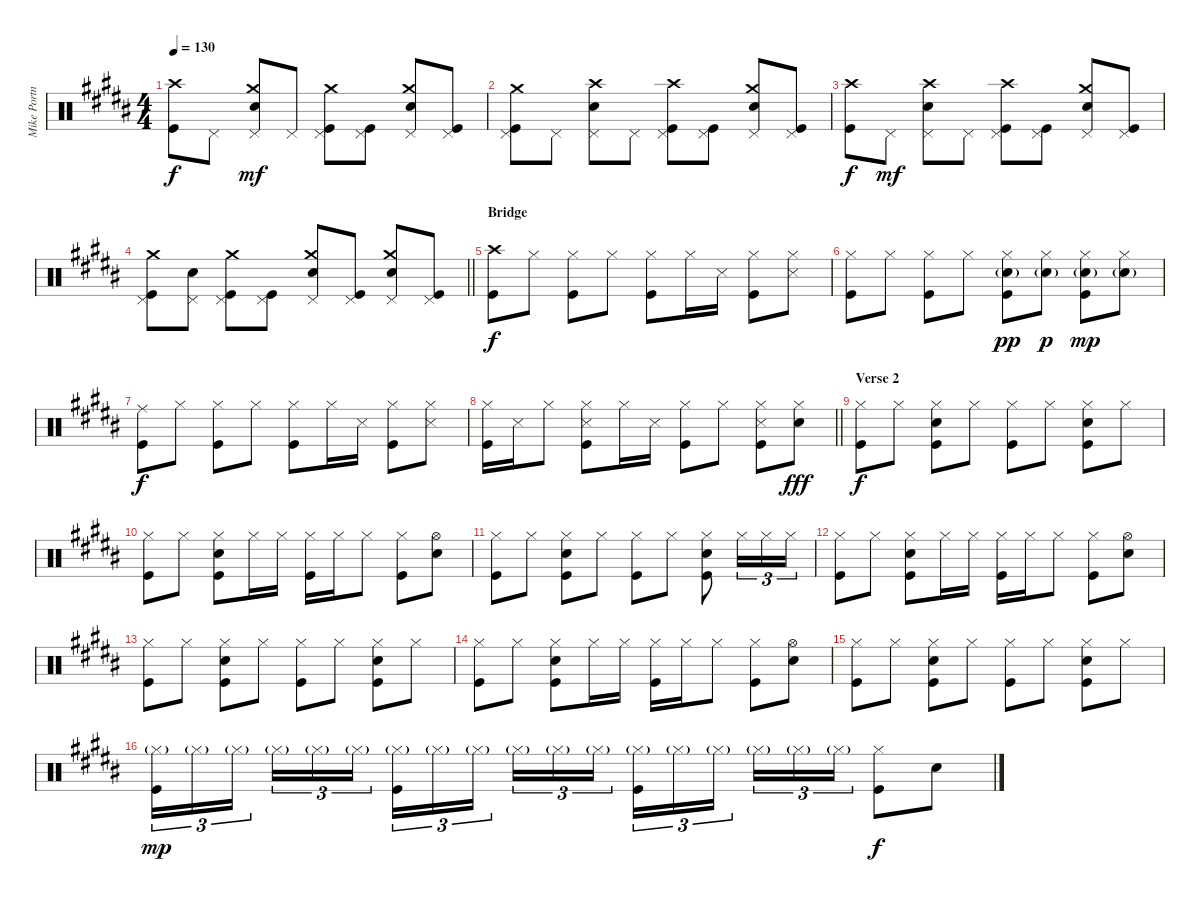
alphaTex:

\track ("Mike Portnoy" "Mike Portn") {instrument percussion}
\staff {score}
\articulation defaults
\ts (4 4)
\tempo 130
\clef neutral
\ks g#minor
("Crash high (hit)" "Kick (hit)").8{dy f} "Pedal Hi-Hat (hit)".8 ("Crash medium (hit)" "Pedal Hi-Hat (hit)" "Electric Snare (hit)").8{dy mf} "Pedal Hi-Hat (hit)".8 ("Crash medium (hit)" "Pedal Hi-Hat (hit)" "Kick (hit)").8 ("Pedal Hi-Hat (hit)" "Kick (hit)").8 ("Crash medium (hit)" "Pedal Hi-Hat (hit)" "Electric Snare (hit)").8 ("Pedal Hi-Hat (hit)" "Kick (hit)").8 |
("Crash medium (hit)" "Pedal Hi-Hat (hit)" "Kick (hit)").8 "Pedal Hi-Hat (hit)".8 ("Crash high (hit)" "Pedal Hi-Hat (hit)" "Electric Snare (hit)").8 "Pedal Hi-Hat (hit)".8 ("Crash high (hit)" "Pedal Hi-Hat (hit)" "Kick (hit)").8 ("Pedal Hi-Hat (hit)" "Kick (hit)").8 ("Crash medium (hit)" "Pedal Hi-Hat (hit)" "Electric Snare (hit)").8 ("Pedal Hi-Hat (hit)" "Kick (hit)").8 |
("Crash high (hit)" "Kick (hit)").8{dy f} "Pedal Hi-Hat (hit)".8{dy mf} ("Crash high (hit)" "Pedal Hi-Hat (hit)" "Electric Snare (hit)").8 "Pedal Hi-Hat (hit)".8 ("Crash high (hit)" "Pedal Hi-Hat (hit)" "Kick (hit)").8 ("Pedal Hi-Hat (hit)" "Kick (hit)").8 ("Crash medium (hit)" "Pedal Hi-Hat (hit)" "Electric Snare (hit)").8 ("Pedal Hi-Hat (hit)" "Kick (hit)").8 |
\barLineRight lightlight
("Crash medium (hit)" "Pedal Hi-Hat (hit)" "Kick (hit)").8 ("Pedal Hi-Hat (hit)" "Electric Snare (hit)").8 ("Crash medium (hit)" "Pedal Hi-Hat (hit)" "Kick (hit)").8 ("Pedal Hi-Hat (hit)" "Kick (hit)").8 ("Crash medium (hit)" "Pedal Hi-Hat (hit)" "Electric Snare (hit)").8 ("Pedal Hi-Hat (hit)" "Kick (hit)").8 ("Crash medium (hit)" "Pedal Hi-Hat (hit)" "Electric Snare (hit)").8 ("Pedal Hi-Hat (hit)" "Kick (hit)").8 |
\section ("" "Bridge")
("Crash high (hit)" "Kick (hit)").8{dy f} "Hi-Hat (closed)".8 ("Hi-Hat (closed)" "Kick (hit)").8 "Hi-Hat (closed)".8 ("Hi-Hat (closed)" "Kick (hit)").8 "Hi-Hat (closed)".16 "Snare (side stick) 3".16 ("Hi-Hat (closed)" "Kick (hit)").8 ("Hi-Hat (closed)" "Snare (side stick) 3").8 |
("Hi-Hat (closed)" "Kick (hit)").8 "Hi-Hat (closed)".8 ("Hi-Hat (closed)" "Kick (hit)").8 "Hi-Hat (closed)".8 ("Hi-Hat (closed)" "Electric Snare (hit)"{g} "Kick (hit)").8{dy pp} ("Hi-Hat (closed)" "Electric Snare (hit)"{g}).8{dy p} ("Hi-Hat (closed)" "Electric Snare (hit)"{g} "Kick (hit)").8{dy mp} ("Hi-Hat (closed)" "Electric Snare (hit)"{g}).8 |
("Ride (middle)" "Kick (hit)").8{dy f} "Hi-Hat (closed)".8 ("Hi-Hat (closed)" "Kick (hit)").8 "Hi-Hat (closed)".8 ("Hi-Hat (closed)" "Kick (hit)").8 "Hi-Hat (closed)".16 "Snare (side stick) 3".16 ("Hi-Hat (closed)" "Kick (hit)").8 ("Hi-Hat (closed)" "Snare (side stick) 3").8 |
\barLineRight lightlight
("Hi-Hat (closed)" "Kick (hit)").16 "Snare (side stick) 3".16 "Hi-Hat (closed)".8 ("Hi-Hat (closed)" "Snare (side stick) 3" "Kick (hit)").8 "Hi-Hat (closed)".16 "Snare (side stick) 3".16 ("Hi-Hat (closed)" "Kick (hit)").8 "Hi-Hat (closed)".8 ("Hi-Hat (closed)" "Snare (side stick) 3" "Kick (hit)").8 ("Hi-Hat (closed)" "Electric Snare (hit)").8{dy fff} |
\section ("" "Verse 2")
("Hi-Hat (closed)" "Kick (hit)").8{dy f} "Hi-Hat (closed)".8 ("Hi-Hat (closed)" "Electric Snare (hit)" "Kick (hit)").8 "Hi-Hat (closed)".8 ("Hi-Hat (closed)" "Kick (hit)").8 "Hi-Hat (closed)".8 ("Hi-Hat (closed)" "Electric Snare (hit)" "Kick (hit)").8 "Hi-Hat (closed)".8 |
("Hi-Hat (closed)" "Kick (hit)").8 "Hi-Hat (closed)".8 ("Hi-Hat (closed)" "Electric Snare (hit)" "Kick (hit)").8 "Hi-Hat (closed)".16 "Hi-Hat (closed)".16 ("Hi-Hat (closed)" "Kick (hit)").16 "Hi-Hat (closed)".16 "Hi-Hat (closed)".8 ("Hi-Hat (closed)" "Kick (hit)").8 ("Hi-Hat (open)" "Electric Snare (hit)").8 |
("Hi-Hat (closed)" "Kick (hit)").8 "Hi-Hat (closed)".8 ("Hi-Hat (closed)" "Electric Snare (hit)" "Kick (hit)").8 "Hi-Hat (closed)".8 ("Hi-Hat (closed)" "Kick (hit)").8 "Hi-Hat (closed)".8 ("Hi-Hat (closed)" "Electric Snare (hit)" "Kick (hit)").8 "Hi-Hat (closed)".16{tu (3 2)} "Hi-Hat (closed)".16{tu (3 2)} "Hi-Hat (closed)".16{tu (3 2)} |
("Hi-Hat (closed)" "Kick (hit)").8 "Hi-Hat (closed)".8 ("Hi-Hat (closed)" "Electric Snare (hit)" "Kick (hit)").8 "Hi-Hat (closed)".16 "Hi-Hat (closed)".16 ("Hi-Hat (closed)" "Kick (hit)").16 "Hi-Hat (closed)".16 "Hi-Hat (closed)".8 ("Hi-Hat (closed)" "Kick (hit)").8 ("Hi-Hat (open)" "Electric Snare (hit)").8 |
("Hi-Hat (closed)" "Kick (hit)").8 "Hi-Hat (closed)".8 ("Hi-Hat (closed)" "Electric Snare (hit)" "Kick (hit)").8 "Hi-Hat (closed)".8 ("Hi-Hat (closed)" "Kick (hit)").8 "Hi-Hat (closed)".8 ("Hi-Hat (closed)" "Electric Snare (hit)" "Kick (hit)").8 "Hi-Hat (closed)".8 |
("Hi-Hat (closed)" "Kick (hit)").8 "Hi-Hat (closed)".8 ("Hi-Hat (closed)" "Electric Snare (hit)" "Kick (hit)").8 "Hi-Hat (closed)".16 "Hi-Hat (closed)".16 ("Hi-Hat (closed)" "Kick (hit)").16 "Hi-Hat (closed)".16 "Hi-Hat (closed)".8 ("Hi-Hat (closed)" "Kick (hit)").8 ("Hi-Hat (open)" "Electric Snare (hit)").8 |
("Hi-Hat (closed)" "Kick (hit)").8 "Hi-Hat (closed)".8 ("Hi-Hat (closed)" "Electric Snare (hit)" "Kick (hit)").8 "Hi-Hat (closed)".8 ("Hi-Hat (closed)" "Kick (hit)").8 "Hi-Hat (closed)".8 ("Hi-Hat (closed)" "Electric Snare (hit)" "Kick (hit)").8 "Hi-Hat (closed)".8 |
("Hi-Hat (closed)"{g} "Kick (hit)").16{tu (3 2) dy mp} "Hi-Hat (closed)"{g}.16{tu (3 2)} "Hi-Hat (closed)"{g}.16{tu (3 2)} "Hi-Hat (closed)"{g}.16{tu (3 2)} "Hi-Hat (closed)"{g}.16{tu (3 2)} "Hi-Hat (closed)"{g}.16{tu (3 2)} ("Hi-Hat (closed)"{g} "Kick (hit)").16{tu (3 2)} "Hi-Hat (closed)"{g}.16{tu (3 2)} "Hi-Hat (closed)"{g}.16{tu (3 2)} "Hi-Hat (closed)"{g}.16{tu (3 2)} "Hi-Hat (closed)"{g}.16{tu (3 2)} "Hi-Hat (closed)"{g}.16{tu (3 2)} ("Hi-Hat (closed)"{g} "Kick (hit)").16{tu (3 2)} "Hi-Hat (closed)"{g}.16{tu (3 2)} "Hi-Hat (closed)"{g}.16{tu (3 2)} "Hi-Hat (closed)"{g}.16{tu (3 2)} "Hi-Hat (closed)"{g}.16{tu (3 2)} "Hi-Hat (closed)"{g}.16{tu (3 2)} ("Hi-Hat (closed)" "Kick (hit)").8{dy f} "Electric Snare (hit)".8
